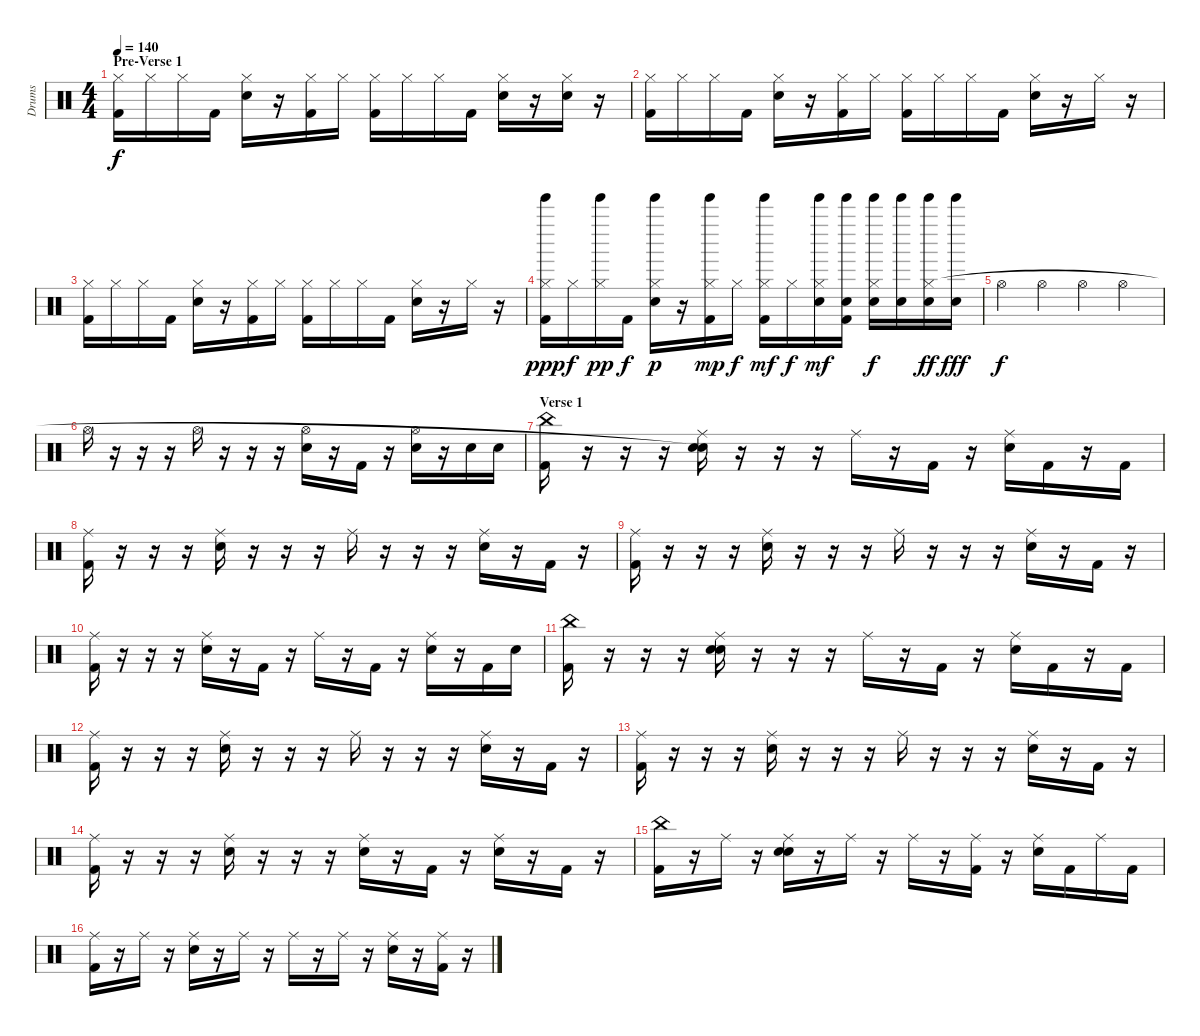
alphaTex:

\track ("Drums" "Drums") {instrument percussion}
\staff {score}
\articulation defaults
\ts (4 4)
\section ("" "Pre-Verse 1")
\tempo 140
\clef neutral
\ks c
("Kick (hit) 2" "Hi-Hat (closed)").16{dy f volume 16} "Hi-Hat (closed)".16 "Hi-Hat (closed)".16 "Kick (hit) 2".16 ("Snare (hit) 2" "Hi-Hat (closed)").16 r.16 ("Kick (hit) 2" "Hi-Hat (closed)").16 "Hi-Hat (closed)".16 ("Kick (hit) 2" "Hi-Hat (closed)").16 "Hi-Hat (closed)".16 "Hi-Hat (closed)".16 "Kick (hit) 2".16 ("Snare (hit) 2" "Hi-Hat (closed)").16 r.16 ("Snare (hit) 2" "Hi-Hat (closed)").16 r.16 |
("Kick (hit) 2" "Hi-Hat (closed)").16{volume 16} "Hi-Hat (closed)".16 "Hi-Hat (closed)".16 "Kick (hit) 2".16 ("Snare (hit) 2" "Hi-Hat (closed)").16 r.16 ("Kick (hit) 2" "Hi-Hat (closed)").16 "Hi-Hat (closed)".16 ("Kick (hit) 2" "Hi-Hat (closed)").16 "Hi-Hat (closed)".16 "Hi-Hat (closed)".16 "Kick (hit) 2".16 ("Snare (hit) 2" "Hi-Hat (closed)").16 r.16 "Hi-Hat (closed)".16 r.16 |
("Kick (hit) 2" "Hi-Hat (closed)").16{volume 16} "Hi-Hat (closed)".16 "Hi-Hat (closed)".16 "Kick (hit) 2".16 ("Snare (hit) 2" "Hi-Hat (closed)").16 r.16 ("Kick (hit) 2" "Hi-Hat (closed)").16 "Hi-Hat (closed)".16 ("Kick (hit) 2" "Hi-Hat (closed)").16 "Hi-Hat (closed)".16 "Hi-Hat (closed)".16 "Kick (hit) 2".16 ("Snare (hit) 2" "Hi-Hat (closed)").16 r.16 "Hi-Hat (closed)".16 r.16 |
("Kick (hit) 2" "Tinkle Bell (hit)" "Hi-Hat (closed)").16{dy ppp volume 16} "Hi-Hat (closed)".16{dy f} ("Tinkle Bell (hit)" "Hi-Hat (closed)").16{dy pp} "Kick (hit) 2".16{dy f} ("Snare (hit) 2" "Tinkle Bell (hit)" "Hi-Hat (closed)").16{dy p} r.16 ("Kick (hit) 2" "Tinkle Bell (hit)" "Hi-Hat (closed)").16{dy mp} "Hi-Hat (closed)".16{dy f} ("Kick (hit) 2" "Tinkle Bell (hit)" "Hi-Hat (closed)").16{dy mf} "Hi-Hat (closed)".16{dy f} ("Snare (hit) 2" "Tinkle Bell (hit)" "Hi-Hat (closed)").16{dy mf} ("Kick (hit) 2" "Snare (hit) 2" "Tinkle Bell (hit)").16 ("Snare (hit) 2" "Tinkle Bell (hit)" "Hi-Hat (closed)").16{dy f} ("Snare (hit) 2" "Tinkle Bell (hit)").16 ("Snare (hit) 2" "Tinkle Bell (hit)" "Hi-Hat (closed)").16{dy ff} ("Snare (hit) 2" "Tinkle Bell (hit)").16{dy fff} |
"Hi-Hat (open)".4{dy f volume 13} "Hi-Hat (open)".4 "Hi-Hat (open)".4 "Hi-Hat (open)".4 |
"Hi-Hat (open)".16 r.16 r.16 r.16 "Hi-Hat (open)".16 r.16 r.16 r.16 ("Snare (hit) 2" "Hi-Hat (open)").16 r.16 "Kick (hit) 2".16 r.16 ("Snare (hit) 2" "Hi-Hat (open)").16 r.16 "Snare (hit) 2".16 "Snare (hit) 2".16 |
\section ("" "Verse 1")
("Kick (hit) 2" "China (hit)").16 r.16 r.16 r.16 ("Snare (hit) 2" "Ride (middle)" "Snare (hit)"{t}).16 r.16 r.16 r.16 "Ride (middle)".16 r.16 "Kick (hit) 2".16 r.16 ("Snare (hit) 2" "Ride (middle)").16 "Kick (hit) 2".16 r.16 "Kick (hit) 2".16 |
("Kick (hit) 2" "Ride (middle)").16 r.16 r.16 r.16 ("Snare (hit) 2" "Ride (middle)").16 r.16 r.16 r.16 "Ride (middle)".16 r.16 r.16 r.16 ("Snare (hit) 2" "Ride (middle)").16 r.16 "Kick (hit) 2".16 r.16 |
("Kick (hit) 2" "Ride (middle)").16 r.16 r.16 r.16 ("Snare (hit) 2" "Ride (middle)").16 r.16 r.16 r.16 "Ride (middle)".16 r.16 r.16 r.16 ("Snare (hit) 2" "Ride (middle)").16 r.16 "Kick (hit) 2".16 r.16 |
("Kick (hit) 2" "Ride (middle)").16 r.16 r.16 r.16 ("Snare (hit) 2" "Ride (middle)").16 r.16 "Kick (hit) 2".16 r.16 "Ride (middle)".16 r.16 "Kick (hit) 2".16 r.16 ("Snare (hit) 2" "Ride (middle)").16 r.16 "Kick (hit) 2".16 "Snare (hit) 2".16 |
("Kick (hit) 2" "China (hit)").16 r.16 r.16 r.16 ("Snare (hit) 2" "Ride (middle)" "Snare (hit)").16 r.16 r.16 r.16 "Ride (middle)".16 r.16 "Kick (hit) 2".16 r.16 ("Snare (hit) 2" "Ride (middle)").16 "Kick (hit) 2".16 r.16 "Kick (hit) 2".16 |
("Kick (hit) 2" "Ride (middle)").16 r.16 r.16 r.16 ("Snare (hit) 2" "Ride (middle)").16 r.16 r.16 r.16 "Ride (middle)".16 r.16 r.16 r.16 ("Snare (hit) 2" "Ride (middle)").16 r.16 "Kick (hit) 2".16 r.16 |
("Kick (hit) 2" "Ride (middle)").16 r.16 r.16 r.16 ("Snare (hit) 2" "Ride (middle)").16 r.16 r.16 r.16 "Ride (middle)".16 r.16 r.16 r.16 ("Snare (hit) 2" "Ride (middle)").16 r.16 "Kick (hit) 2".16 r.16 |
("Kick (hit) 2" "Ride (middle)").16 r.16 r.16 r.16 ("Snare (hit) 2" "Ride (middle)").16 r.16 r.16 r.16 ("Snare (hit) 2" "Ride (middle)").16 r.16 "Kick (hit) 2".16 r.16 ("Snare (hit) 2" "Ride (middle)").16 r.16 "Kick (hit) 2".16 r.16 |
("Kick (hit) 2" "China (hit)").16 r.16 "Ride (middle)".16 r.16 ("Snare (hit) 2" "Ride (middle)" "Snare (hit)").16 r.16 "Ride (middle)".16 r.16 "Ride (middle)".16 r.16 ("Kick (hit) 2" "Ride (middle)").16 r.16 ("Snare (hit) 2" "Ride (middle)").16 "Kick (hit) 2".16 "Ride (middle)".16 "Kick (hit) 2".16 |
("Kick (hit) 2" "Ride (middle)").16 r.16 "Ride (middle)".16 r.16 ("Snare (hit) 2" "Ride (middle)").16 r.16 "Ride (middle)".16 r.16 "Ride (middle)".16 r.16 "Ride (middle)".16 r.16 ("Snare (hit) 2" "Ride (middle)").16 r.16 ("Kick (hit) 2" "Ride (middle)").16 r.16
